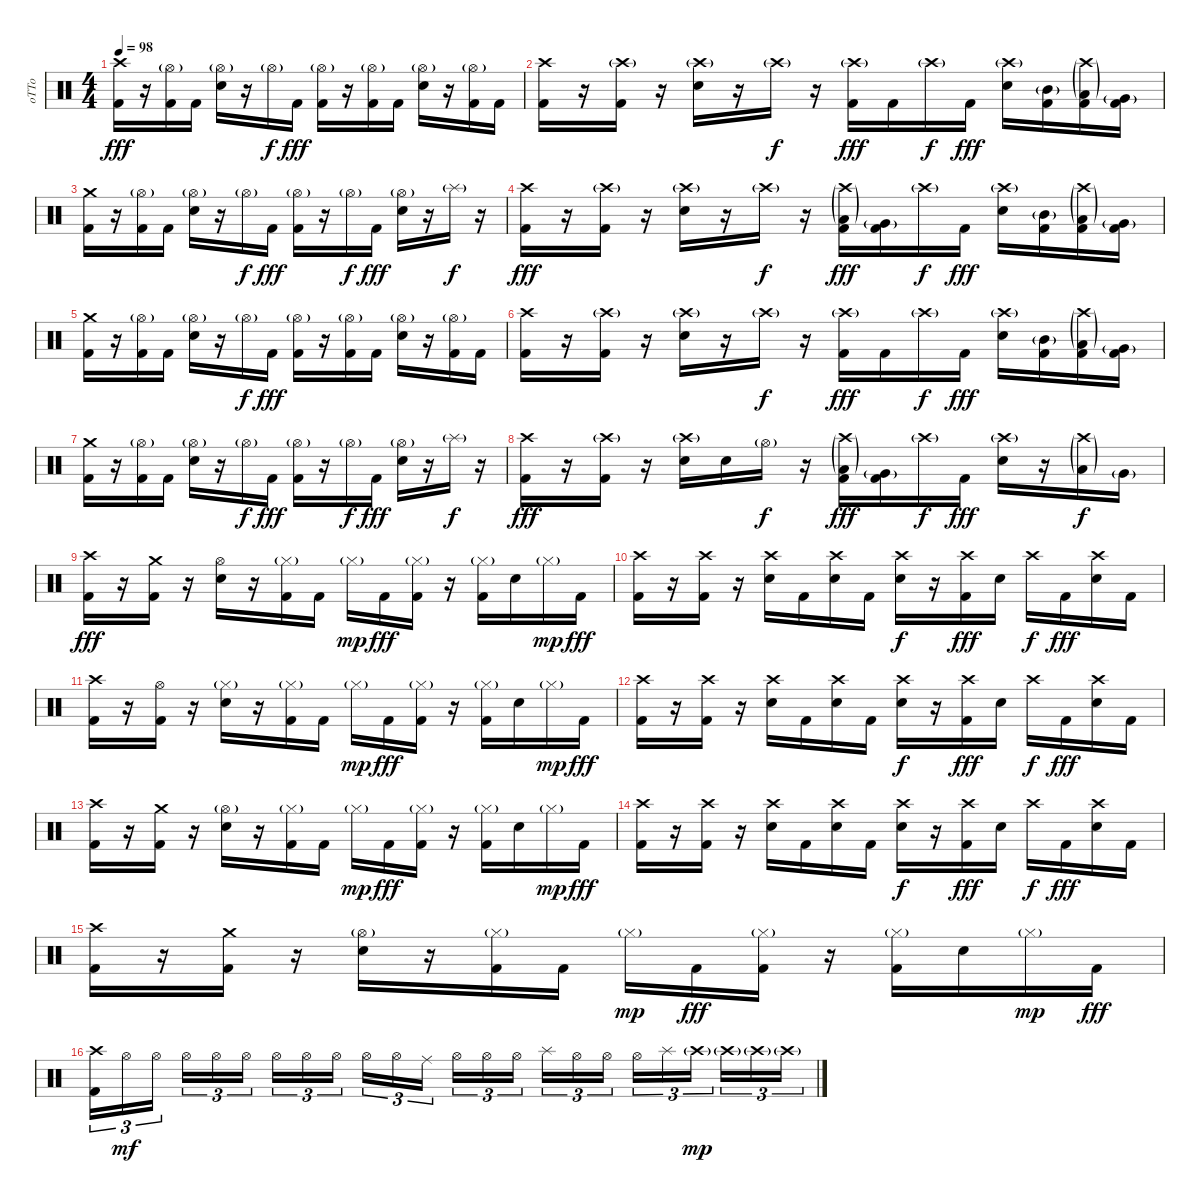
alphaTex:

\track ("oTTo" "oTTo") {instrument percussion}
\staff {score}
\articulation defaults
\ts (4 4)
\tempo 98
\clef neutral
\ks c
("Crash high (hit)" "Kick (hit) 2").16{dy fff} r.16 ("Hi-Hat (open)"{g} "Kick (hit) 2").16 "Kick (hit) 2".16 ("Hi-Hat (open)"{g} "Snare (hit) 2").16 r.16 "Hi-Hat (open)"{g}.16{dy f} "Kick (hit) 2".16{dy fff} ("Hi-Hat (open)"{g} "Kick (hit) 2").16 r.16 ("Hi-Hat (open)"{g} "Kick (hit) 2").16 "Kick (hit) 2".16 ("Hi-Hat (open)"{g} "Snare (hit) 2").16 r.16 ("Hi-Hat (open)"{g} "Kick (hit) 2").16 "Kick (hit) 2".16 |
("Crash high (hit)" "Kick (hit) 2").16 r.16 ("Crash high (hit)"{g} "Kick (hit) 2").16 r.16 ("Crash high (hit)"{g} "Snare (hit) 2").16 r.16 "Crash high (hit)"{g}.16{dy f} r.16 ("Crash high (hit)"{g} "Kick (hit) 2").16{dy fff} "Kick (hit) 2".16 "Crash high (hit)"{g}.16{dy f} "Kick (hit) 2".16{dy fff} ("Crash high (hit)"{g} "Snare (hit) 2").16 ("Mid Tom (hit)"{g} "Kick (hit) 2").16 ("Crash high (hit)"{g} "Low Tom (hit)"{g} "Kick (hit) 2").16 ("Very Low Tom (hit)"{g} "Kick (hit) 2").16 |
("Crash medium (hit)" "Kick (hit) 2").16 r.16 ("Hi-Hat (open)"{g} "Kick (hit) 2").16 "Kick (hit) 2".16 ("Hi-Hat (open)"{g} "Snare (hit) 2").16 r.16 "Hi-Hat (open)"{g}.16{dy f} "Kick (hit) 2".16{dy fff} ("Hi-Hat (open)"{g} "Kick (hit) 2").16 r.16 "Hi-Hat (open)"{g}.16{dy f} "Kick (hit) 2".16{dy fff} ("Hi-Hat (open)"{g} "Snare (hit) 2").16 r.16 "Splash (hit)"{g}.16{dy f} r.16 |
("Crash high (hit)" "Kick (hit) 2").16{dy fff} r.16 ("Crash high (hit)"{g} "Kick (hit) 2").16 r.16 ("Crash high (hit)"{g} "Snare (hit) 2").16 r.16 "Crash high (hit)"{g}.16{dy f} r.16 ("Crash high (hit)"{g} "Low Tom (hit)"{g} "Kick (hit) 2").16{dy fff} ("Very Low Tom (hit)"{g} "Kick (hit) 2").16 "Crash high (hit)"{g}.16{dy f} "Kick (hit) 2".16{dy fff} ("Crash high (hit)"{g} "Snare (hit) 2").16 ("Mid Tom (hit)"{g} "Kick (hit) 2").16 ("Crash high (hit)"{g} "Low Tom (hit)"{g} "Kick (hit) 2").16 ("Very Low Tom (hit)"{g} "Kick (hit) 2").16 |
("Crash medium (hit)" "Kick (hit) 2").16 r.16 ("Hi-Hat (open)"{g} "Kick (hit) 2").16 "Kick (hit) 2".16 ("Hi-Hat (open)"{g} "Snare (hit) 2").16 r.16 "Hi-Hat (open)"{g}.16{dy f} "Kick (hit) 2".16{dy fff} ("Hi-Hat (open)"{g} "Kick (hit) 2").16 r.16 ("Hi-Hat (open)"{g} "Kick (hit) 2").16 "Kick (hit) 2".16 ("Hi-Hat (open)"{g} "Snare (hit) 2").16 r.16 ("Hi-Hat (open)"{g} "Kick (hit) 2").16 "Kick (hit) 2".16 |
("Crash high (hit)" "Kick (hit) 2").16 r.16 ("Crash high (hit)"{g} "Kick (hit) 2").16 r.16 ("Crash high (hit)"{g} "Snare (hit) 2").16 r.16 "Crash high (hit)"{g}.16{dy f} r.16 ("Crash high (hit)"{g} "Kick (hit) 2").16{dy fff} "Kick (hit) 2".16 "Crash high (hit)"{g}.16{dy f} "Kick (hit) 2".16{dy fff} ("Crash high (hit)"{g} "Snare (hit) 2").16 ("Mid Tom (hit)"{g} "Kick (hit) 2").16 ("Crash high (hit)"{g} "Low Tom (hit)"{g} "Kick (hit) 2").16 ("Very Low Tom (hit)"{g} "Kick (hit) 2").16 |
("Crash medium (hit)" "Kick (hit) 2").16 r.16 ("Hi-Hat (open)"{g} "Kick (hit) 2").16 "Kick (hit) 2".16 ("Hi-Hat (open)"{g} "Snare (hit) 2").16 r.16 "Hi-Hat (open)"{g}.16{dy f} "Kick (hit) 2".16{dy fff} ("Hi-Hat (open)"{g} "Kick (hit) 2").16 r.16 "Hi-Hat (open)"{g}.16{dy f} "Kick (hit) 2".16{dy fff} ("Hi-Hat (open)"{g} "Snare (hit) 2").16 r.16 "Splash (hit)"{g}.16{dy f} r.16 |
("Crash high (hit)" "Kick (hit) 2").16{dy fff} r.16 ("Crash high (hit)"{g} "Kick (hit) 2").16 r.16 ("Crash high (hit)"{g} "Snare (hit) 2").16 "Snare (hit) 2".16 "Hi-Hat (open)"{g}.16{dy f} r.16 ("Crash high (hit)"{g} "Low Tom (hit)"{g} "Kick (hit) 2").16{dy fff} ("Very Low Tom (hit)"{g} "Kick (hit) 2").16 "Crash high (hit)"{g}.16{dy f} "Kick (hit) 2".16{dy fff} ("Crash high (hit)"{g} "Snare (hit) 2").16 r.16 ("Crash high (hit)"{g} "Low Tom (hit)"{g}).16{dy f} "Very Low Tom (hit)"{g}.16 |
("Crash high (hit)" "Kick (hit) 2").16{dy fff} r.16 ("Crash medium (hit)" "Kick (hit) 2").16 r.16 ("Hi-Hat (open)" "Snare (hit) 2").16 r.16 ("Hi-Hat (closed)"{g} "Kick (hit) 2").16 "Kick (hit) 2".16 "Hi-Hat (closed)"{g}.16{dy mp} "Kick (hit) 2".16{dy fff} ("Hi-Hat (closed)"{g} "Kick (hit) 2").16 r.16 ("Hi-Hat (closed)"{g} "Kick (hit) 2").16 "Snare (hit) 2".16 "Hi-Hat (closed)"{g}.16{dy mp} "Kick (hit) 2".16{dy fff} |
("Crash high (hit)" "Kick (hit) 2").16 r.16 ("Crash high (hit)" "Kick (hit) 2").16 r.16 ("Crash high (hit)" "Snare (hit) 2").16 "Kick (hit) 2".16 ("Crash high (hit)" "Snare (hit) 2").16 "Kick (hit) 2".16 ("Crash high (hit)" "Snare (hit) 2").16{dy f} r.16 ("Crash high (hit)" "Kick (hit) 2").16{dy fff} "Snare (hit) 2".16 "Crash high (hit)".16{dy f} "Kick (hit) 2".16{dy fff} ("Crash high (hit)" "Snare (hit) 2").16 "Kick (hit) 2".16 |
("Crash high (hit)" "Kick (hit) 2").16 r.16 ("Hi-Hat (open)" "Kick (hit) 2").16 r.16 ("Hi-Hat (closed)"{g} "Snare (hit) 2").16 r.16 ("Hi-Hat (closed)"{g} "Kick (hit) 2").16 "Kick (hit) 2".16 "Hi-Hat (closed)"{g}.16{dy mp} "Kick (hit) 2".16{dy fff} ("Hi-Hat (closed)"{g} "Kick (hit) 2").16 r.16 ("Hi-Hat (closed)"{g} "Kick (hit) 2").16 "Snare (hit) 2".16 "Hi-Hat (closed)"{g}.16{dy mp} "Kick (hit) 2".16{dy fff} |
("Crash high (hit)" "Kick (hit) 2").16 r.16 ("Crash high (hit)" "Kick (hit) 2").16 r.16 ("Crash high (hit)" "Snare (hit) 2").16 "Kick (hit) 2".16 ("Crash high (hit)" "Snare (hit) 2").16 "Kick (hit) 2".16 ("Crash high (hit)" "Snare (hit) 2").16{dy f} r.16 ("Crash high (hit)" "Kick (hit) 2").16{dy fff} "Snare (hit) 2".16 "Crash high (hit)".16{dy f} "Kick (hit) 2".16{dy fff} ("Crash high (hit)" "Snare (hit) 2").16 "Kick (hit) 2".16 |
("Crash high (hit)" "Kick (hit) 2").16 r.16 ("Crash medium (hit)" "Kick (hit) 2").16 r.16 ("Hi-Hat (open)"{g} "Snare (hit) 2").16 r.16 ("Hi-Hat (closed)"{g} "Kick (hit) 2").16 "Kick (hit) 2".16 "Hi-Hat (closed)"{g}.16{dy mp} "Kick (hit) 2".16{dy fff} ("Hi-Hat (closed)"{g} "Kick (hit) 2").16 r.16 ("Hi-Hat (closed)"{g} "Kick (hit) 2").16 "Snare (hit) 2".16 "Hi-Hat (closed)"{g}.16{dy mp} "Kick (hit) 2".16{dy fff} |
("Crash high (hit)" "Kick (hit) 2").16 r.16 ("Crash high (hit)" "Kick (hit) 2").16 r.16 ("Crash high (hit)" "Snare (hit) 2").16 "Kick (hit) 2".16 ("Crash high (hit)" "Snare (hit) 2").16 "Kick (hit) 2".16 ("Crash high (hit)" "Snare (hit) 2").16{dy f} r.16 ("Crash high (hit)" "Kick (hit) 2").16{dy fff} "Snare (hit) 2".16 "Crash high (hit)".16{dy f} "Kick (hit) 2".16{dy fff} ("Crash high (hit)" "Snare (hit) 2").16 "Kick (hit) 2".16 |
("Crash high (hit)" "Kick (hit) 2").16 r.16 ("Crash medium (hit)" "Kick (hit) 2").16 r.16 ("Hi-Hat (open)"{g} "Snare (hit) 2").16 r.16 ("Hi-Hat (closed)"{g} "Kick (hit) 2").16 "Kick (hit) 2".16 "Hi-Hat (closed)"{g}.16{dy mp} "Kick (hit) 2".16{dy fff} ("Hi-Hat (closed)"{g} "Kick (hit) 2").16 r.16 ("Hi-Hat (closed)"{g} "Kick (hit) 2").16 "Snare (hit) 2".16 "Hi-Hat (closed)"{g}.16{dy mp} "Kick (hit) 2".16{dy fff} |
("Crash high (hit)" "Kick (hit) 2").16{tu (3 2)} "Hi-Hat (open)".16{tu (3 2) dy mf} "Hi-Hat (open)".16{tu (3 2) beam splitsecondary} "Hi-Hat (open)".16{tu (3 2)} "Hi-Hat (open)".16{tu (3 2)} "Hi-Hat (open)".16{tu (3 2)} "Hi-Hat (open)".16{tu (3 2)} "Hi-Hat (open)".16{tu (3 2)} "Hi-Hat (open)".16{tu (3 2) beam splitsecondary} "Hi-Hat (open)".16{tu (3 2)} "Hi-Hat (open)".16{tu (3 2)} "Ride (middle)".16{tu (3 2)} "Hi-Hat (open)".16{tu (3 2)} "Hi-Hat (open)".16{tu (3 2)} "Hi-Hat (open)".16{tu (3 2) beam splitsecondary} "Splash (hit)".16{tu (3 2)} "Hi-Hat (open)".16{tu (3 2)} "Hi-Hat (open)".16{tu (3 2)} "Hi-Hat (open)".16{tu (3 2)} "Splash (hit)".16{tu (3 2)} "Crash high (hit)"{g}.16{tu (3 2) dy mp beam splitsecondary} "Crash high (hit)"{g}.16{tu (3 2)} "Crash high (hit)"{g}.16{tu (3 2)} "Crash high (hit)"{g}.16{tu (3 2)}
